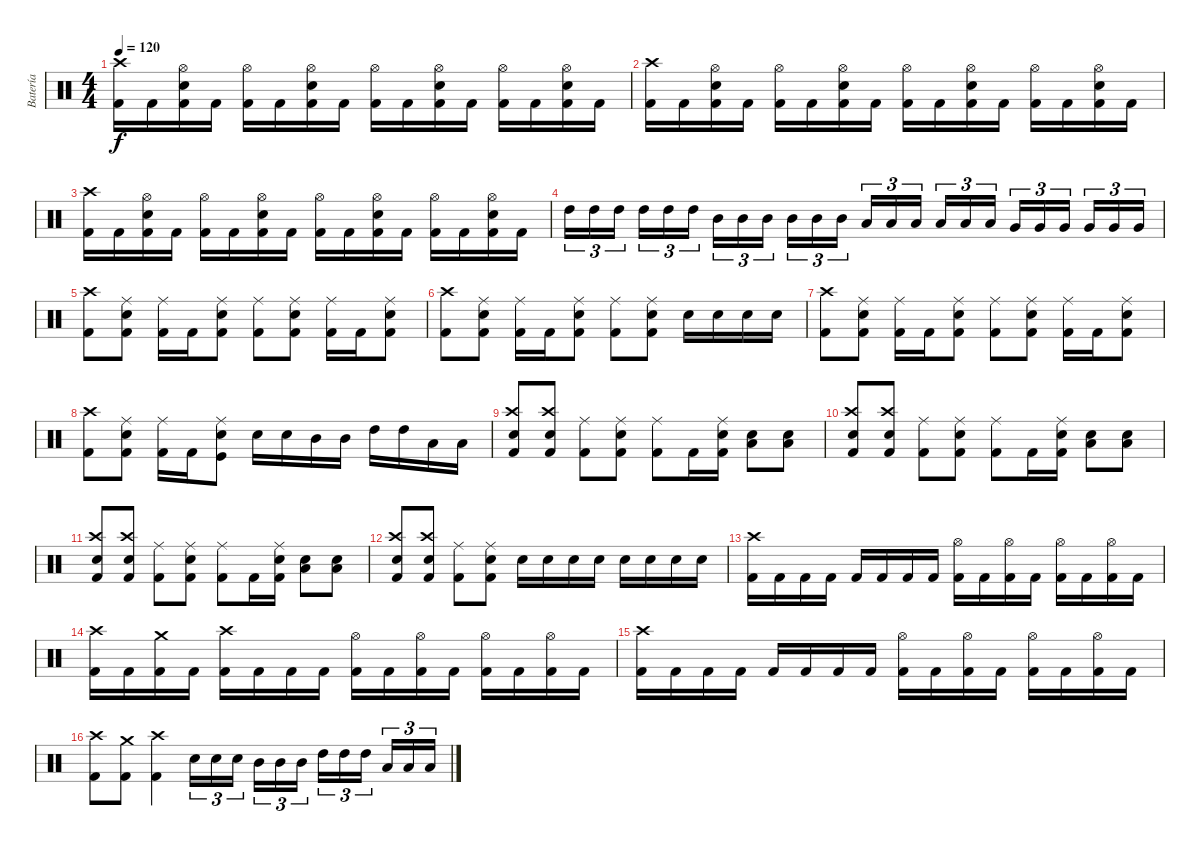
\track ("Batería" "Batería") {instrument percussion}
\staff {score}
\articulation defaults
\ts (4 4)
\tempo 120
\clef neutral
\ks c
("Kick (hit) 2" "Crash high (hit)").16{dy f} "Kick (hit) 2".16 ("Kick (hit) 2" "Hi-Hat (open)" "Snare (hit) 2").16 "Kick (hit) 2".16 ("Kick (hit) 2" "Hi-Hat (open)").16 "Kick (hit) 2".16 ("Kick (hit) 2" "Hi-Hat (open)" "Snare (hit) 2").16 "Kick (hit) 2".16 ("Kick (hit) 2" "Hi-Hat (open)").16 "Kick (hit) 2".16 ("Kick (hit) 2" "Hi-Hat (open)" "Snare (hit) 2").16 "Kick (hit) 2".16 ("Kick (hit) 2" "Hi-Hat (open)").16 "Kick (hit) 2".16 ("Kick (hit) 2" "Hi-Hat (open)" "Snare (hit) 2").16 "Kick (hit) 2".16 |
("Kick (hit) 2" "Crash high (hit)").16 "Kick (hit) 2".16 ("Kick (hit) 2" "Hi-Hat (open)" "Snare (hit) 2").16 "Kick (hit) 2".16 ("Kick (hit) 2" "Hi-Hat (open)").16 "Kick (hit) 2".16 ("Kick (hit) 2" "Hi-Hat (open)" "Snare (hit) 2").16 "Kick (hit) 2".16 ("Kick (hit) 2" "Hi-Hat (open)").16 "Kick (hit) 2".16 ("Kick (hit) 2" "Hi-Hat (open)" "Snare (hit) 2").16 "Kick (hit) 2".16 ("Kick (hit) 2" "Hi-Hat (open)").16 "Kick (hit) 2".16 ("Kick (hit) 2" "Hi-Hat (open)" "Snare (hit) 2").16 "Kick (hit) 2".16 |
("Kick (hit) 2" "Crash high (hit)").16 "Kick (hit) 2".16 ("Kick (hit) 2" "Hi-Hat (open)" "Snare (hit) 2").16 "Kick (hit) 2".16 ("Kick (hit) 2" "Hi-Hat (open)").16 "Kick (hit) 2".16 ("Kick (hit) 2" "Hi-Hat (open)" "Snare (hit) 2").16 "Kick (hit) 2".16 ("Kick (hit) 2" "Hi-Hat (open)").16 "Kick (hit) 2".16 ("Kick (hit) 2" "Hi-Hat (open)" "Snare (hit) 2").16 "Kick (hit) 2".16 ("Kick (hit) 2" "Hi-Hat (open)").16 "Kick (hit) 2".16 ("Kick (hit) 2" "Hi-Hat (open)" "Snare (hit) 2").16 "Kick (hit) 2".16 |
"High Tom (hit)".16{tu (3 2)} "High Tom (hit)".16{tu (3 2)} "High Tom (hit)".16{tu (3 2)} "High Tom (hit)".16{tu (3 2)} "High Tom (hit)".16{tu (3 2)} "High Tom (hit)".16{tu (3 2)} "Mid Tom (hit)".16{tu (3 2)} "Mid Tom (hit)".16{tu (3 2)} "Mid Tom (hit)".16{tu (3 2)} "Mid Tom (hit)".16{tu (3 2)} "Mid Tom (hit)".16{tu (3 2)} "Mid Tom (hit)".16{tu (3 2)} "Low Tom (hit)".16{tu (3 2)} "Low Tom (hit)".16{tu (3 2)} "Low Tom (hit)".16{tu (3 2)} "Low Tom (hit)".16{tu (3 2)} "Low Tom (hit)".16{tu (3 2)} "Low Tom (hit)".16{tu (3 2)} "Very Low Tom (hit)".16{tu (3 2)} "Very Low Tom (hit)".16{tu (3 2)} "Very Low Tom (hit)".16{tu (3 2)} "Very Low Tom (hit)".16{tu (3 2)} "Very Low Tom (hit)".16{tu (3 2)} "Very Low Tom (hit)".16{tu (3 2)} |
("Crash high (hit)" "Kick (hit) 2").8 ("Ride (middle)" "Kick (hit) 2" "Snare (hit) 2").8 ("Ride (middle)" "Kick (hit) 2").16 "Kick (hit) 2".16 ("Ride (middle)" "Kick (hit) 2" "Snare (hit) 2").8 ("Ride (middle)" "Kick (hit) 2").8 ("Ride (middle)" "Kick (hit) 2" "Snare (hit) 2").8 ("Ride (middle)" "Kick (hit) 2").16 "Kick (hit) 2".16 ("Ride (middle)" "Kick (hit) 2" "Snare (hit) 2").8 |
("Crash high (hit)" "Kick (hit) 2").8 ("Ride (middle)" "Kick (hit) 2" "Snare (hit) 2").8 ("Ride (middle)" "Kick (hit) 2").16 "Kick (hit) 2".16 ("Ride (middle)" "Kick (hit) 2" "Snare (hit) 2").8 ("Ride (middle)" "Kick (hit) 2").8 ("Ride (middle)" "Kick (hit) 2" "Snare (hit) 2").8 "Snare (hit) 2".16 "Snare (hit) 2".16 "Snare (hit) 2".16 "Snare (hit) 2".16 |
("Crash high (hit)" "Kick (hit) 2").8 ("Ride (middle)" "Kick (hit) 2" "Snare (hit) 2").8 ("Ride (middle)" "Kick (hit) 2").16 "Kick (hit) 2".16 ("Ride (middle)" "Kick (hit) 2" "Snare (hit) 2").8 ("Ride (middle)" "Kick (hit) 2").8 ("Ride (middle)" "Kick (hit) 2" "Snare (hit) 2").8 ("Ride (middle)" "Kick (hit) 2").16 "Kick (hit) 2".16 ("Ride (middle)" "Kick (hit) 2" "Snare (hit) 2").8 |
("Crash high (hit)" "Kick (hit) 2").8 ("Ride (middle)" "Kick (hit) 2" "Snare (hit) 2").8 ("Ride (middle)" "Kick (hit) 2").16 "Kick (hit) 2".16 ("Ride (middle)" "Kick (hit)" "Snare (hit) 2").8 "Snare (hit) 2".16 "Snare (hit) 2".16 "Mid Tom (hit)".16 "Mid Tom (hit)".16 "High Tom (hit)".16 "High Tom (hit)".16 "Low Tom (hit)".16 "Low Tom (hit)".16 |
("Crash high (hit)" "Kick (hit) 2" "Snare (hit) 2").8 ("Crash high (hit)" "Kick (hit) 2" "Snare (hit) 2").8 ("Ride (middle)" "Kick (hit) 2").8 ("Ride (middle)" "Kick (hit) 2" "Snare (hit) 2").8 ("Ride (middle)" "Kick (hit) 2").8 "Kick (hit) 2".16 ("Ride (middle)" "Kick (hit) 2" "Snare (hit) 2").16 ("Low Tom (hit)" "Snare (hit) 2").8 ("Low Tom (hit)" "Snare (hit) 2").8 |
("Crash high (hit)" "Kick (hit) 2" "Snare (hit) 2").8 ("Crash high (hit)" "Kick (hit) 2" "Snare (hit) 2").8 ("Ride (middle)" "Kick (hit) 2").8 ("Ride (middle)" "Kick (hit) 2" "Snare (hit) 2").8 ("Ride (middle)" "Kick (hit) 2").8 "Kick (hit) 2".16 ("Ride (middle)" "Kick (hit) 2" "Snare (hit) 2").16 ("Low Tom (hit)" "Snare (hit) 2").8 ("Low Tom (hit)" "Snare (hit) 2").8 |
("Crash high (hit)" "Kick (hit) 2" "Snare (hit) 2").8 ("Crash high (hit)" "Kick (hit) 2" "Snare (hit) 2").8 ("Ride (middle)" "Kick (hit) 2").8 ("Ride (middle)" "Kick (hit) 2" "Snare (hit) 2").8 ("Ride (middle)" "Kick (hit) 2").8 "Kick (hit) 2".16 ("Ride (middle)" "Kick (hit) 2" "Snare (hit) 2").16 ("Low Tom (hit)" "Snare (hit) 2").8 ("Low Tom (hit)" "Snare (hit) 2").8 |
("Crash high (hit)" "Kick (hit) 2" "Snare (hit) 2").8 ("Crash high (hit)" "Kick (hit) 2" "Snare (hit) 2").8 ("Ride (middle)" "Kick (hit) 2").8 ("Ride (middle)" "Kick (hit) 2" "Snare (hit) 2").8 "Snare (hit) 2".16 "Snare (hit) 2".16 "Snare (hit) 2".16 "Snare (hit) 2".16 "Snare (hit) 2".16 "Snare (hit) 2".16 "Snare (hit) 2".16 "Snare (hit) 2".16 |
("Crash high (hit)" "Kick (hit) 2").16 "Kick (hit) 2".16 "Kick (hit) 2".16 "Kick (hit) 2".16 "Kick (hit) 2".16 "Kick (hit) 2".16 "Kick (hit) 2".16 "Kick (hit) 2".16 ("Hi-Hat (open)" "Kick (hit) 2").16 "Kick (hit) 2".16 ("Hi-Hat (open)" "Kick (hit) 2").16 "Kick (hit) 2".16 ("Hi-Hat (open)" "Kick (hit) 2").16 "Kick (hit) 2".16 ("Hi-Hat (open)" "Kick (hit) 2").16 "Kick (hit) 2".16 |
("Crash high (hit)" "Kick (hit) 2").16 "Kick (hit) 2".16 ("Crash medium (hit)" "Kick (hit) 2").16 "Kick (hit) 2".16 ("Crash high (hit)" "Kick (hit) 2").16 "Kick (hit) 2".16 "Kick (hit) 2".16 "Kick (hit) 2".16 ("Hi-Hat (open)" "Kick (hit) 2").16 "Kick (hit) 2".16 ("Hi-Hat (open)" "Kick (hit) 2").16 "Kick (hit) 2".16 ("Hi-Hat (open)" "Kick (hit) 2").16 "Kick (hit) 2".16 ("Hi-Hat (open)" "Kick (hit) 2").16 "Kick (hit) 2".16 |
("Crash high (hit)" "Kick (hit) 2").16 "Kick (hit) 2".16 "Kick (hit) 2".16 "Kick (hit) 2".16 "Kick (hit) 2".16 "Kick (hit) 2".16 "Kick (hit) 2".16 "Kick (hit) 2".16 ("Hi-Hat (open)" "Kick (hit) 2").16 "Kick (hit) 2".16 ("Hi-Hat (open)" "Kick (hit) 2").16 "Kick (hit) 2".16 ("Hi-Hat (open)" "Kick (hit) 2").16 "Kick (hit) 2".16 ("Hi-Hat (open)" "Kick (hit) 2").16 "Kick (hit) 2".16 |
("Crash high (hit)" "Kick (hit) 2").8 ("Crash medium (hit)" "Kick (hit) 2").8 ("Crash high (hit)" "Kick (hit) 2").4 "Snare (hit) 2".16{tu (3 2)} "Snare (hit) 2".16{tu (3 2)} "Snare (hit) 2".16{tu (3 2)} "Mid Tom (hit)".16{tu (3 2)} "Mid Tom (hit)".16{tu (3 2)} "Mid Tom (hit)".16{tu (3 2)} "High Tom (hit)".16{tu (3 2)} "High Tom (hit)".16{tu (3 2)} "High Tom (hit)".16{tu (3 2)} "Low Tom (hit)".16{tu (3 2)} "Low Tom (hit)".16{tu (3 2)} "Low Tom (hit)".16{tu (3 2)}
